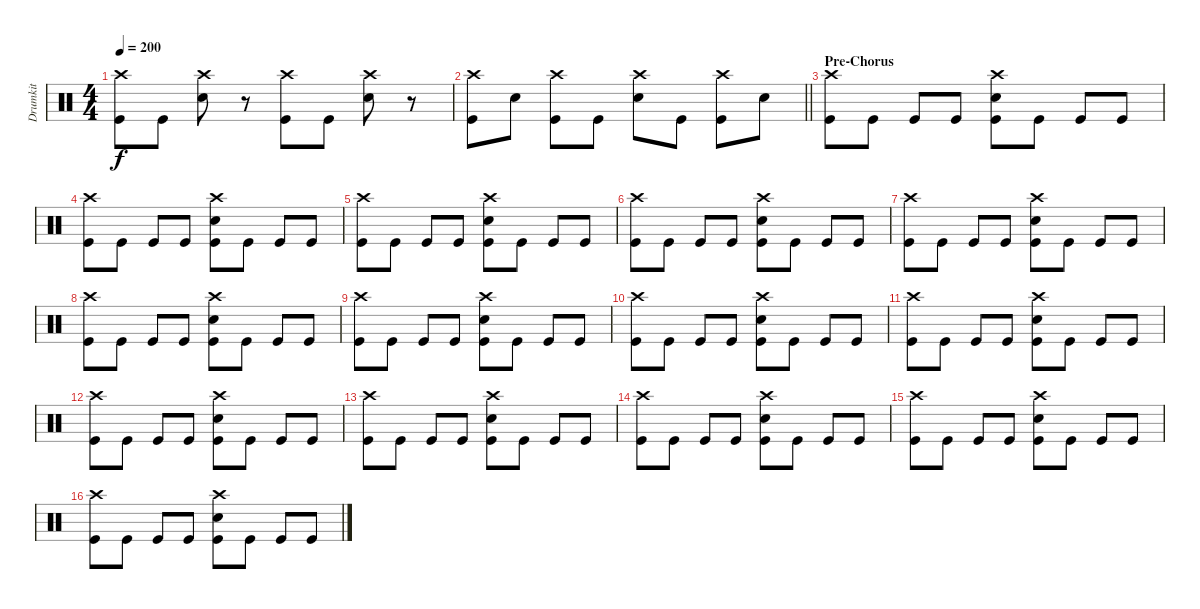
\track ("Drumkit" "Drumkit") {instrument percussion}
\staff {score}
\articulation defaults
\ts (4 4)
\tempo 200
\clef neutral
\ks c
("Crash high (hit)" "Kick (hit)").8{dy f} "Kick (hit)".8 ("Snare (hit) 2" "Crash high (hit)").8 r.8 ("Kick (hit)" "Crash high (hit)").8 "Kick (hit)".8 ("Snare (hit) 2" "Crash high (hit)").8 r.8 |
\barLineRight lightlight
("Kick (hit)" "Crash high (hit)").8 "Snare (hit) 2".8 ("Kick (hit)" "Crash high (hit)").8 "Kick (hit)".8 ("Snare (hit) 2" "Crash high (hit)").8 "Kick (hit)".8 ("Kick (hit)" "Crash high (hit)").8 "Snare (hit) 2".8 |
\section ("" "Pre-Chorus")
("Kick (hit)" "Crash high (hit)").8 "Kick (hit)".8 "Kick (hit)".8 "Kick (hit)".8 ("Kick (hit)" "Snare (hit) 2" "Crash high (hit)").8 "Kick (hit)".8 "Kick (hit)".8 "Kick (hit)".8 |
("Kick (hit)" "Crash high (hit)").8 "Kick (hit)".8 "Kick (hit)".8 "Kick (hit)".8 ("Kick (hit)" "Snare (hit) 2" "Crash high (hit)").8 "Kick (hit)".8 "Kick (hit)".8 "Kick (hit)".8 |
("Kick (hit)" "Crash high (hit)").8 "Kick (hit)".8 "Kick (hit)".8 "Kick (hit)".8 ("Kick (hit)" "Snare (hit) 2" "Crash high (hit)").8 "Kick (hit)".8 "Kick (hit)".8 "Kick (hit)".8 |
("Kick (hit)" "Crash high (hit)").8 "Kick (hit)".8 "Kick (hit)".8 "Kick (hit)".8 ("Kick (hit)" "Snare (hit) 2" "Crash high (hit)").8 "Kick (hit)".8 "Kick (hit)".8 "Kick (hit)".8 |
("Kick (hit)" "Crash high (hit)").8 "Kick (hit)".8 "Kick (hit)".8 "Kick (hit)".8 ("Kick (hit)" "Snare (hit) 2" "Crash high (hit)").8 "Kick (hit)".8 "Kick (hit)".8 "Kick (hit)".8 |
("Kick (hit)" "Crash high (hit)").8 "Kick (hit)".8 "Kick (hit)".8 "Kick (hit)".8 ("Kick (hit)" "Snare (hit) 2" "Crash high (hit)").8 "Kick (hit)".8 "Kick (hit)".8 "Kick (hit)".8 |
("Kick (hit)" "Crash high (hit)").8 "Kick (hit)".8 "Kick (hit)".8 "Kick (hit)".8 ("Kick (hit)" "Snare (hit) 2" "Crash high (hit)").8 "Kick (hit)".8 "Kick (hit)".8 "Kick (hit)".8 |
("Kick (hit)" "Crash high (hit)").8 "Kick (hit)".8 "Kick (hit)".8 "Kick (hit)".8 ("Kick (hit)" "Snare (hit) 2" "Crash high (hit)").8 "Kick (hit)".8 "Kick (hit)".8 "Kick (hit)".8 |
("Kick (hit)" "Crash high (hit)").8 "Kick (hit)".8 "Kick (hit)".8 "Kick (hit)".8 ("Kick (hit)" "Snare (hit) 2" "Crash high (hit)").8 "Kick (hit)".8 "Kick (hit)".8 "Kick (hit)".8 |
("Kick (hit)" "Crash high (hit)").8 "Kick (hit)".8 "Kick (hit)".8 "Kick (hit)".8 ("Kick (hit)" "Snare (hit) 2" "Crash high (hit)").8 "Kick (hit)".8 "Kick (hit)".8 "Kick (hit)".8 |
("Kick (hit)" "Crash high (hit)").8 "Kick (hit)".8 "Kick (hit)".8 "Kick (hit)".8 ("Kick (hit)" "Snare (hit) 2" "Crash high (hit)").8 "Kick (hit)".8 "Kick (hit)".8 "Kick (hit)".8 |
("Kick (hit)" "Crash high (hit)").8 "Kick (hit)".8 "Kick (hit)".8 "Kick (hit)".8 ("Kick (hit)" "Snare (hit) 2" "Crash high (hit)").8 "Kick (hit)".8 "Kick (hit)".8 "Kick (hit)".8 |
("Kick (hit)" "Crash high (hit)").8 "Kick (hit)".8 "Kick (hit)".8 "Kick (hit)".8 ("Kick (hit)" "Snare (hit) 2" "Crash high (hit)").8 "Kick (hit)".8 "Kick (hit)".8 "Kick (hit)".8 |
("Kick (hit)" "Crash high (hit)").8 "Kick (hit)".8 "Kick (hit)".8 "Kick (hit)".8 ("Kick (hit)" "Snare (hit) 2" "Crash high (hit)").8 "Kick (hit)".8 "Kick (hit)".8 "Kick (hit)".8
